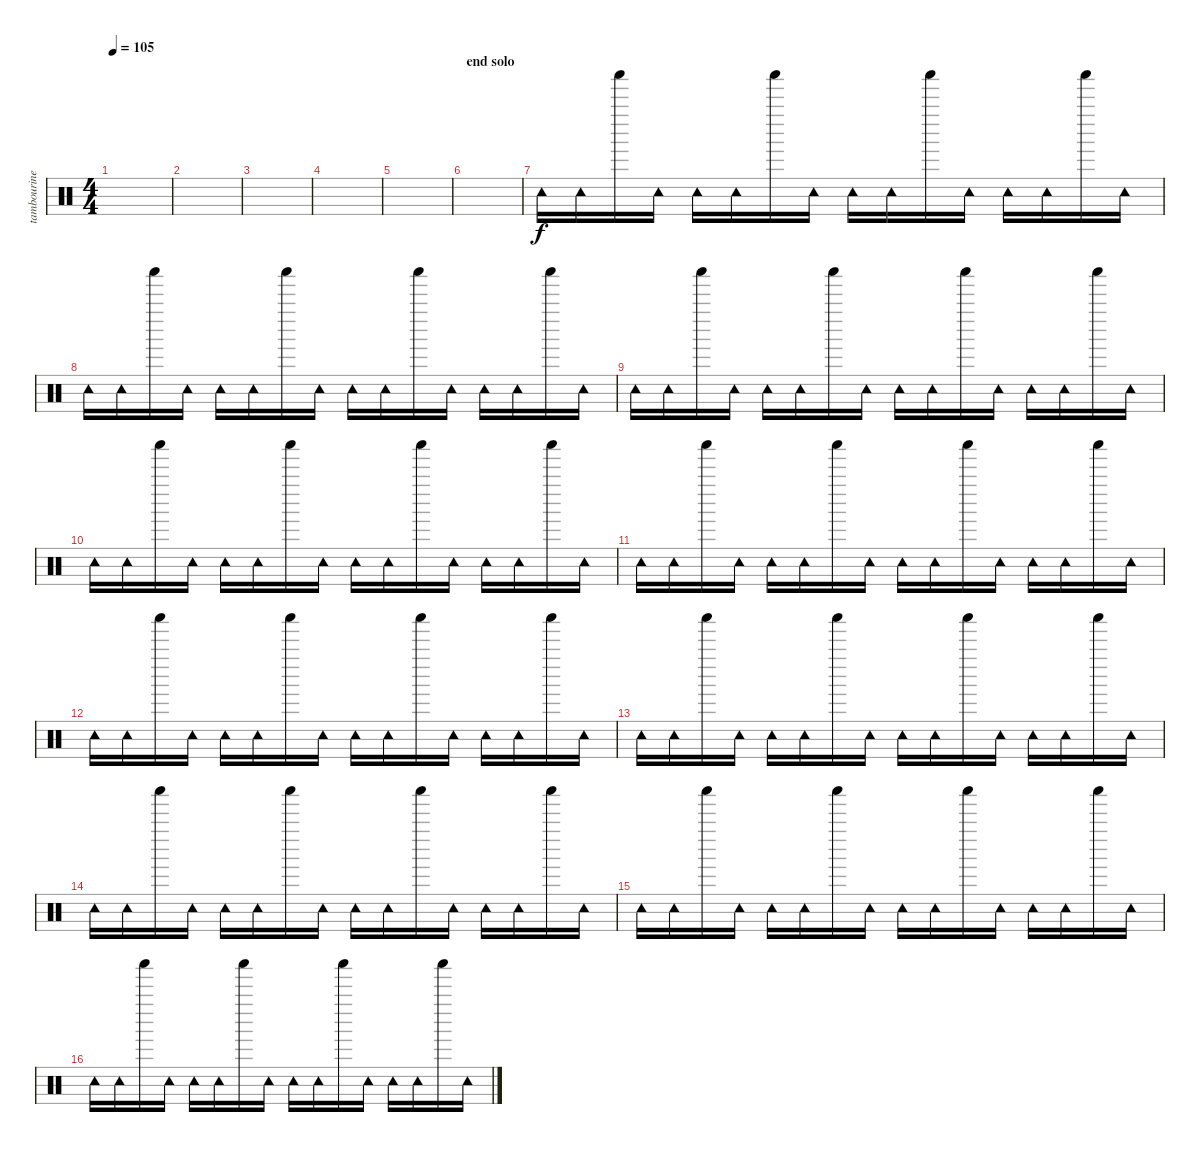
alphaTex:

\track ("tambourine" "tambourine") {instrument percussion}
\staff {score}
\articulation defaults
\ts (4 4)
\tempo 105
\clef neutral
\ks c
|
|
|
|
|
\section ("" "end solo")
|
"Tambourine (hit)".16 "Tambourine (hit)".16 "Shaker (hit)".16 "Tambourine (hit)".16 "Tambourine (hit)".16 "Tambourine (hit)".16 "Shaker (hit)".16 "Tambourine (hit)".16 "Tambourine (hit)".16 "Tambourine (hit)".16 "Shaker (hit)".16 "Tambourine (hit)".16 "Tambourine (hit)".16 "Tambourine (hit)".16 "Shaker (hit)".16 "Tambourine (hit)".16 |
"Tambourine (hit)".16 "Tambourine (hit)".16 "Shaker (hit)".16 "Tambourine (hit)".16 "Tambourine (hit)".16 "Tambourine (hit)".16 "Shaker (hit)".16 "Tambourine (hit)".16 "Tambourine (hit)".16 "Tambourine (hit)".16 "Shaker (hit)".16 "Tambourine (hit)".16 "Tambourine (hit)".16 "Tambourine (hit)".16 "Shaker (hit)".16 "Tambourine (hit)".16 |
"Tambourine (hit)".16 "Tambourine (hit)".16 "Shaker (hit)".16 "Tambourine (hit)".16 "Tambourine (hit)".16 "Tambourine (hit)".16 "Shaker (hit)".16 "Tambourine (hit)".16 "Tambourine (hit)".16 "Tambourine (hit)".16 "Shaker (hit)".16 "Tambourine (hit)".16 "Tambourine (hit)".16 "Tambourine (hit)".16 "Shaker (hit)".16 "Tambourine (hit)".16 |
"Tambourine (hit)".16 "Tambourine (hit)".16 "Shaker (hit)".16 "Tambourine (hit)".16 "Tambourine (hit)".16 "Tambourine (hit)".16 "Shaker (hit)".16 "Tambourine (hit)".16 "Tambourine (hit)".16 "Tambourine (hit)".16 "Shaker (hit)".16 "Tambourine (hit)".16 "Tambourine (hit)".16 "Tambourine (hit)".16 "Shaker (hit)".16 "Tambourine (hit)".16 |
"Tambourine (hit)".16 "Tambourine (hit)".16 "Shaker (hit)".16 "Tambourine (hit)".16 "Tambourine (hit)".16 "Tambourine (hit)".16 "Shaker (hit)".16 "Tambourine (hit)".16 "Tambourine (hit)".16 "Tambourine (hit)".16 "Shaker (hit)".16 "Tambourine (hit)".16 "Tambourine (hit)".16 "Tambourine (hit)".16 "Shaker (hit)".16 "Tambourine (hit)".16 |
"Tambourine (hit)".16 "Tambourine (hit)".16 "Shaker (hit)".16 "Tambourine (hit)".16 "Tambourine (hit)".16 "Tambourine (hit)".16 "Shaker (hit)".16 "Tambourine (hit)".16 "Tambourine (hit)".16 "Tambourine (hit)".16 "Shaker (hit)".16 "Tambourine (hit)".16 "Tambourine (hit)".16 "Tambourine (hit)".16 "Shaker (hit)".16 "Tambourine (hit)".16 |
"Tambourine (hit)".16 "Tambourine (hit)".16 "Shaker (hit)".16 "Tambourine (hit)".16 "Tambourine (hit)".16 "Tambourine (hit)".16 "Shaker (hit)".16 "Tambourine (hit)".16 "Tambourine (hit)".16 "Tambourine (hit)".16 "Shaker (hit)".16 "Tambourine (hit)".16 "Tambourine (hit)".16 "Tambourine (hit)".16 "Shaker (hit)".16 "Tambourine (hit)".16 |
"Tambourine (hit)".16 "Tambourine (hit)".16 "Shaker (hit)".16 "Tambourine (hit)".16 "Tambourine (hit)".16 "Tambourine (hit)".16 "Shaker (hit)".16 "Tambourine (hit)".16 "Tambourine (hit)".16 "Tambourine (hit)".16 "Shaker (hit)".16 "Tambourine (hit)".16 "Tambourine (hit)".16 "Tambourine (hit)".16 "Shaker (hit)".16 "Tambourine (hit)".16 |
"Tambourine (hit)".16 "Tambourine (hit)".16 "Shaker (hit)".16 "Tambourine (hit)".16 "Tambourine (hit)".16 "Tambourine (hit)".16 "Shaker (hit)".16 "Tambourine (hit)".16 "Tambourine (hit)".16 "Tambourine (hit)".16 "Shaker (hit)".16 "Tambourine (hit)".16 "Tambourine (hit)".16 "Tambourine (hit)".16 "Shaker (hit)".16 "Tambourine (hit)".16 |
"Tambourine (hit)".16 "Tambourine (hit)".16 "Shaker (hit)".16 "Tambourine (hit)".16 "Tambourine (hit)".16 "Tambourine (hit)".16 "Shaker (hit)".16 "Tambourine (hit)".16 "Tambourine (hit)".16 "Tambourine (hit)".16 "Shaker (hit)".16 "Tambourine (hit)".16 "Tambourine (hit)".16 "Tambourine (hit)".16 "Shaker (hit)".16 "Tambourine (hit)".16
